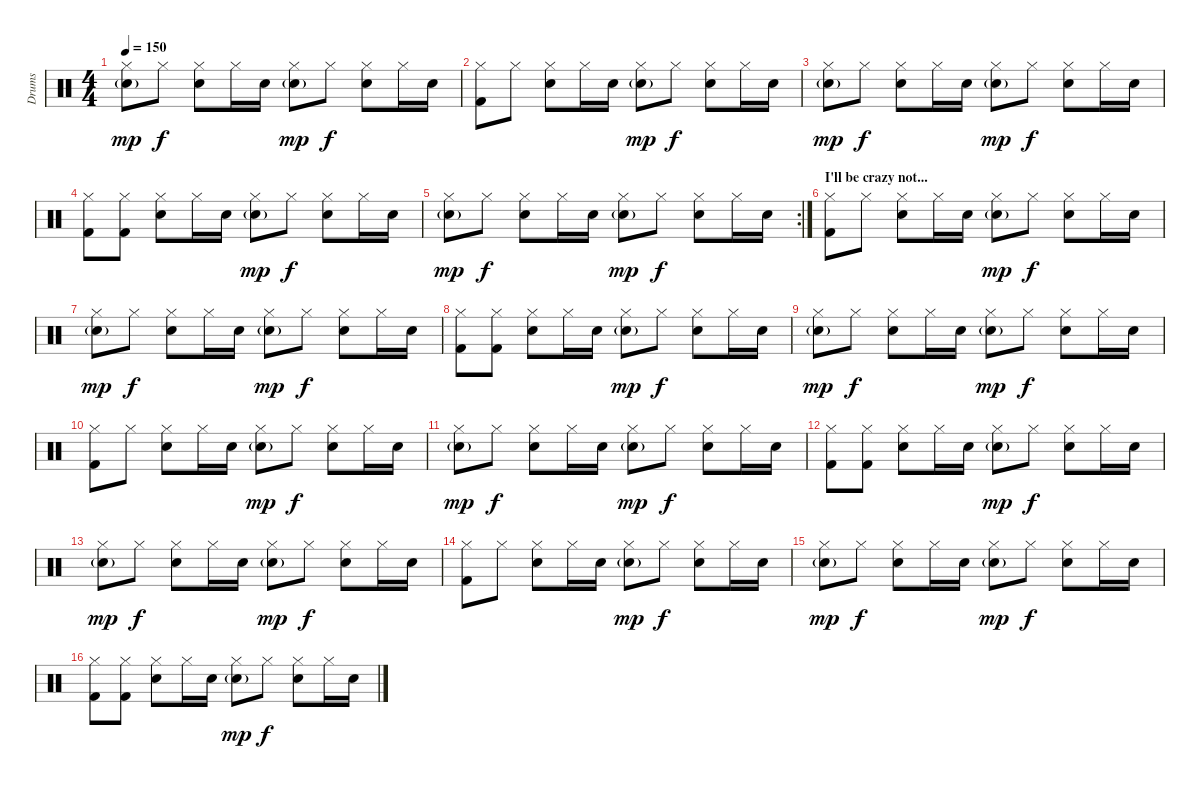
\track ("Drums" "Drums") {instrument percussion}
\staff {score}
\articulation defaults
\ts (4 4)
\tempo 150
\clef neutral
\ks c
("Hi-Hat (closed)" "Snare (hit) 2"{g}).8{dy mp} "Hi-Hat (closed)".8{dy f} ("Hi-Hat (closed)" "Snare (hit) 2").8 "Hi-Hat (closed)".16 "Snare (hit) 2".16 ("Hi-Hat (closed)" "Snare (hit) 2"{g}).8{dy mp} "Hi-Hat (closed)".8{dy f} ("Hi-Hat (closed)" "Snare (hit) 2").8 "Hi-Hat (closed)".16 "Snare (hit) 2".16 |
("Hi-Hat (closed)" "Kick (hit) 2").8 "Hi-Hat (closed)".8 ("Hi-Hat (closed)" "Snare (hit) 2").8 "Hi-Hat (closed)".16 "Snare (hit) 2".16 ("Hi-Hat (closed)" "Snare (hit) 2"{g}).8{dy mp} "Hi-Hat (closed)".8{dy f} ("Hi-Hat (closed)" "Snare (hit) 2").8 "Hi-Hat (closed)".16 "Snare (hit) 2".16 |
("Hi-Hat (closed)" "Snare (hit) 2"{g}).8{dy mp} "Hi-Hat (closed)".8{dy f} ("Hi-Hat (closed)" "Snare (hit) 2").8 "Hi-Hat (closed)".16 "Snare (hit) 2".16 ("Hi-Hat (closed)" "Snare (hit) 2"{g}).8{dy mp} "Hi-Hat (closed)".8{dy f} ("Hi-Hat (closed)" "Snare (hit) 2").8 "Hi-Hat (closed)".16 "Snare (hit) 2".16 |
("Hi-Hat (closed)" "Kick (hit) 2").8 ("Hi-Hat (closed)" "Kick (hit) 2").8 ("Hi-Hat (closed)" "Snare (hit) 2").8 "Hi-Hat (closed)".16 "Snare (hit) 2".16 ("Hi-Hat (closed)" "Snare (hit) 2"{g}).8{dy mp} "Hi-Hat (closed)".8{dy f} ("Hi-Hat (closed)" "Snare (hit) 2").8 "Hi-Hat (closed)".16 "Snare (hit) 2".16 |
\rc 2
("Hi-Hat (closed)" "Snare (hit) 2"{g}).8{dy mp} "Hi-Hat (closed)".8{dy f} ("Hi-Hat (closed)" "Snare (hit) 2").8 "Hi-Hat (closed)".16 "Snare (hit) 2".16 ("Hi-Hat (closed)" "Snare (hit) 2"{g}).8{dy mp} "Hi-Hat (closed)".8{dy f} ("Hi-Hat (closed)" "Snare (hit) 2").8 "Hi-Hat (closed)".16 "Snare (hit) 2".16 |
\section ("" "I'll be crazy not...")
("Hi-Hat (closed)" "Kick (hit) 2").8 "Hi-Hat (closed)".8 ("Hi-Hat (closed)" "Snare (hit) 2").8 "Hi-Hat (closed)".16 "Snare (hit) 2".16 ("Hi-Hat (closed)" "Snare (hit) 2"{g}).8{dy mp} "Hi-Hat (closed)".8{dy f} ("Hi-Hat (closed)" "Snare (hit) 2").8 "Hi-Hat (closed)".16 "Snare (hit) 2".16 |
("Hi-Hat (closed)" "Snare (hit) 2"{g}).8{dy mp} "Hi-Hat (closed)".8{dy f} ("Hi-Hat (closed)" "Snare (hit) 2").8 "Hi-Hat (closed)".16 "Snare (hit) 2".16 ("Hi-Hat (closed)" "Snare (hit) 2"{g}).8{dy mp} "Hi-Hat (closed)".8{dy f} ("Hi-Hat (closed)" "Snare (hit) 2").8 "Hi-Hat (closed)".16 "Snare (hit) 2".16 |
("Hi-Hat (closed)" "Kick (hit) 2").8 ("Hi-Hat (closed)" "Kick (hit) 2").8 ("Hi-Hat (closed)" "Snare (hit) 2").8 "Hi-Hat (closed)".16 "Snare (hit) 2".16 ("Hi-Hat (closed)" "Snare (hit) 2"{g}).8{dy mp} "Hi-Hat (closed)".8{dy f} ("Hi-Hat (closed)" "Snare (hit) 2").8 "Hi-Hat (closed)".16 "Snare (hit) 2".16 |
("Hi-Hat (closed)" "Snare (hit) 2"{g}).8{dy mp} "Hi-Hat (closed)".8{dy f} ("Hi-Hat (closed)" "Snare (hit) 2").8 "Hi-Hat (closed)".16 "Snare (hit) 2".16 ("Hi-Hat (closed)" "Snare (hit) 2"{g}).8{dy mp} "Hi-Hat (closed)".8{dy f} ("Hi-Hat (closed)" "Snare (hit) 2").8 "Hi-Hat (closed)".16 "Snare (hit) 2".16 |
("Hi-Hat (closed)" "Kick (hit) 2").8 "Hi-Hat (closed)".8 ("Hi-Hat (closed)" "Snare (hit) 2").8 "Hi-Hat (closed)".16 "Snare (hit) 2".16 ("Hi-Hat (closed)" "Snare (hit) 2"{g}).8{dy mp} "Hi-Hat (closed)".8{dy f} ("Hi-Hat (closed)" "Snare (hit) 2").8 "Hi-Hat (closed)".16 "Snare (hit) 2".16 |
("Hi-Hat (closed)" "Snare (hit) 2"{g}).8{dy mp} "Hi-Hat (closed)".8{dy f} ("Hi-Hat (closed)" "Snare (hit) 2").8 "Hi-Hat (closed)".16 "Snare (hit) 2".16 ("Hi-Hat (closed)" "Snare (hit) 2"{g}).8{dy mp} "Hi-Hat (closed)".8{dy f} ("Hi-Hat (closed)" "Snare (hit) 2").8 "Hi-Hat (closed)".16 "Snare (hit) 2".16 |
("Hi-Hat (closed)" "Kick (hit) 2").8 ("Hi-Hat (closed)" "Kick (hit) 2").8 ("Hi-Hat (closed)" "Snare (hit) 2").8 "Hi-Hat (closed)".16 "Snare (hit) 2".16 ("Hi-Hat (closed)" "Snare (hit) 2"{g}).8{dy mp} "Hi-Hat (closed)".8{dy f} ("Hi-Hat (closed)" "Snare (hit) 2").8 "Hi-Hat (closed)".16 "Snare (hit) 2".16 |
("Hi-Hat (closed)" "Snare (hit) 2"{g}).8{dy mp} "Hi-Hat (closed)".8{dy f} ("Hi-Hat (closed)" "Snare (hit) 2").8 "Hi-Hat (closed)".16 "Snare (hit) 2".16 ("Hi-Hat (closed)" "Snare (hit) 2"{g}).8{dy mp} "Hi-Hat (closed)".8{dy f} ("Hi-Hat (closed)" "Snare (hit) 2").8 "Hi-Hat (closed)".16 "Snare (hit) 2".16 |
("Hi-Hat (closed)" "Kick (hit) 2").8 "Hi-Hat (closed)".8 ("Hi-Hat (closed)" "Snare (hit) 2").8 "Hi-Hat (closed)".16 "Snare (hit) 2".16 ("Hi-Hat (closed)" "Snare (hit) 2"{g}).8{dy mp} "Hi-Hat (closed)".8{dy f} ("Hi-Hat (closed)" "Snare (hit) 2").8 "Hi-Hat (closed)".16 "Snare (hit) 2".16 |
("Hi-Hat (closed)" "Snare (hit) 2"{g}).8{dy mp} "Hi-Hat (closed)".8{dy f} ("Hi-Hat (closed)" "Snare (hit) 2").8 "Hi-Hat (closed)".16 "Snare (hit) 2".16 ("Hi-Hat (closed)" "Snare (hit) 2"{g}).8{dy mp} "Hi-Hat (closed)".8{dy f} ("Hi-Hat (closed)" "Snare (hit) 2").8 "Hi-Hat (closed)".16 "Snare (hit) 2".16 |
("Hi-Hat (closed)" "Kick (hit) 2").8 ("Hi-Hat (closed)" "Kick (hit) 2").8 ("Hi-Hat (closed)" "Snare (hit) 2").8 "Hi-Hat (closed)".16 "Snare (hit) 2".16 ("Hi-Hat (closed)" "Snare (hit) 2"{g}).8{dy mp} "Hi-Hat (closed)".8{dy f} ("Hi-Hat (closed)" "Snare (hit) 2").8 "Hi-Hat (closed)".16 "Snare (hit) 2".16
